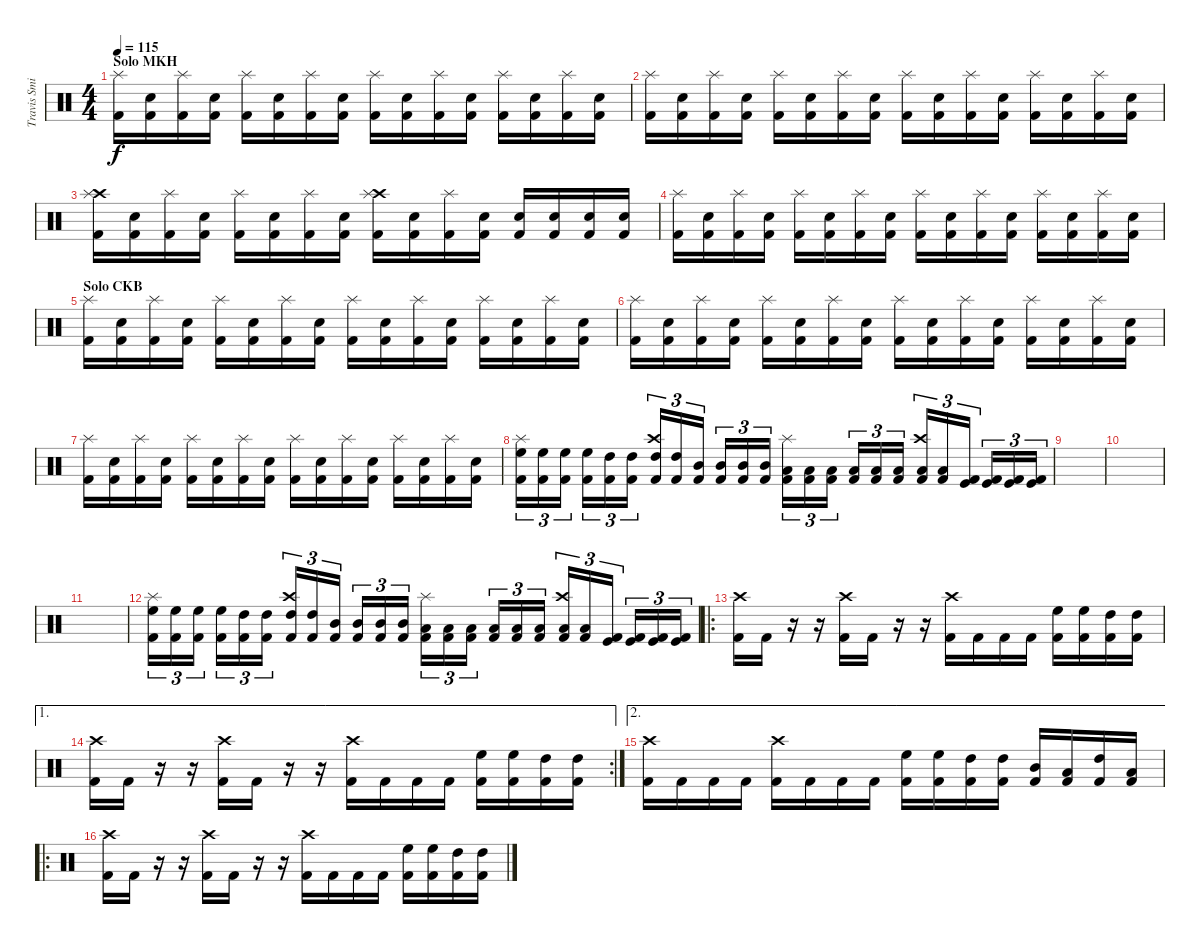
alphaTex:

\track ("Travis Smith" "Travis Smi") {instrument percussion}
\staff {score}
\articulation defaults
\ts (4 4)
\section ("" "Solo MKH")
\tempo 115
\clef neutral
\ks c
("Splash (hit)" "Kick (hit) 2").16{dy f} ("Electric Snare (hit)" "Kick (hit) 2").16 ("Splash (hit)" "Kick (hit) 2").16 ("Electric Snare (hit)" "Kick (hit) 2").16 ("Splash (hit)" "Kick (hit) 2").16 ("Electric Snare (hit)" "Kick (hit) 2").16 ("Splash (hit)" "Kick (hit) 2").16 ("Electric Snare (hit)" "Kick (hit) 2").16 ("Splash (hit)" "Kick (hit) 2").16 ("Electric Snare (hit)" "Kick (hit) 2").16 ("Splash (hit)" "Kick (hit) 2").16 ("Electric Snare (hit)" "Kick (hit) 2").16 ("Splash (hit)" "Kick (hit) 2").16 ("Electric Snare (hit)" "Kick (hit) 2").16 ("Splash (hit)" "Kick (hit) 2").16 ("Electric Snare (hit)" "Kick (hit) 2").16 |
("Splash (hit)" "Kick (hit) 2").16 ("Electric Snare (hit)" "Kick (hit) 2").16 ("Splash (hit)" "Kick (hit) 2").16 ("Electric Snare (hit)" "Kick (hit) 2").16 ("Splash (hit)" "Kick (hit) 2").16 ("Electric Snare (hit)" "Kick (hit) 2").16 ("Splash (hit)" "Kick (hit) 2").16 ("Electric Snare (hit)" "Kick (hit) 2").16 ("Splash (hit)" "Kick (hit) 2").16 ("Electric Snare (hit)" "Kick (hit) 2").16 ("Splash (hit)" "Kick (hit) 2").16 ("Electric Snare (hit)" "Kick (hit) 2").16 ("Splash (hit)" "Kick (hit) 2").16 ("Electric Snare (hit)" "Kick (hit) 2").16 ("Splash (hit)" "Kick (hit) 2").16 ("Electric Snare (hit)" "Kick (hit) 2").16 |
("Crash high (hit)" "Splash (hit)" "Kick (hit) 2").16 ("Electric Snare (hit)" "Kick (hit) 2").16 ("Splash (hit)" "Kick (hit) 2").16 ("Electric Snare (hit)" "Kick (hit) 2").16 ("Splash (hit)" "Kick (hit) 2").16 ("Electric Snare (hit)" "Kick (hit) 2").16 ("Splash (hit)" "Kick (hit) 2").16 ("Electric Snare (hit)" "Kick (hit) 2").16 ("Crash high (hit)" "Splash (hit)" "Kick (hit) 2").16 ("Electric Snare (hit)" "Kick (hit) 2").16 ("Splash (hit)" "Kick (hit) 2").16 ("Electric Snare (hit)" "Kick (hit) 2").16 ("Electric Snare (hit)" "Kick (hit) 2").16 ("Electric Snare (hit)" "Kick (hit) 2").16 ("Electric Snare (hit)" "Kick (hit) 2").16 ("Electric Snare (hit)" "Kick (hit) 2").16 |
("Splash (hit)" "Kick (hit) 2").16 ("Electric Snare (hit)" "Kick (hit) 2").16 ("Splash (hit)" "Kick (hit) 2").16 ("Electric Snare (hit)" "Kick (hit) 2").16 ("Splash (hit)" "Kick (hit) 2").16 ("Electric Snare (hit)" "Kick (hit) 2").16 ("Splash (hit)" "Kick (hit) 2").16 ("Electric Snare (hit)" "Kick (hit) 2").16 ("Splash (hit)" "Kick (hit) 2").16 ("Electric Snare (hit)" "Kick (hit) 2").16 ("Splash (hit)" "Kick (hit) 2").16 ("Electric Snare (hit)" "Kick (hit) 2").16 ("Splash (hit)" "Kick (hit) 2").16 ("Electric Snare (hit)" "Kick (hit) 2").16 ("Splash (hit)" "Kick (hit) 2").16 ("Electric Snare (hit)" "Kick (hit) 2").16 |
\section ("" "Solo CKB")
("Splash (hit)" "Kick (hit) 2").16 ("Electric Snare (hit)" "Kick (hit) 2").16 ("Splash (hit)" "Kick (hit) 2").16 ("Electric Snare (hit)" "Kick (hit) 2").16 ("Splash (hit)" "Kick (hit) 2").16 ("Electric Snare (hit)" "Kick (hit) 2").16 ("Splash (hit)" "Kick (hit) 2").16 ("Electric Snare (hit)" "Kick (hit) 2").16 ("Splash (hit)" "Kick (hit) 2").16 ("Electric Snare (hit)" "Kick (hit) 2").16 ("Splash (hit)" "Kick (hit) 2").16 ("Electric Snare (hit)" "Kick (hit) 2").16 ("Splash (hit)" "Kick (hit) 2").16 ("Electric Snare (hit)" "Kick (hit) 2").16 ("Splash (hit)" "Kick (hit) 2").16 ("Electric Snare (hit)" "Kick (hit) 2").16 |
("Splash (hit)" "Kick (hit) 2").16 ("Electric Snare (hit)" "Kick (hit) 2").16 ("Splash (hit)" "Kick (hit) 2").16 ("Electric Snare (hit)" "Kick (hit) 2").16 ("Splash (hit)" "Kick (hit) 2").16 ("Electric Snare (hit)" "Kick (hit) 2").16 ("Splash (hit)" "Kick (hit) 2").16 ("Electric Snare (hit)" "Kick (hit) 2").16 ("Splash (hit)" "Kick (hit) 2").16 ("Electric Snare (hit)" "Kick (hit) 2").16 ("Splash (hit)" "Kick (hit) 2").16 ("Electric Snare (hit)" "Kick (hit) 2").16 ("Splash (hit)" "Kick (hit) 2").16 ("Electric Snare (hit)" "Kick (hit) 2").16 ("Splash (hit)" "Kick (hit) 2").16 ("Electric Snare (hit)" "Kick (hit) 2").16 |
("Splash (hit)" "Kick (hit) 2").16 ("Electric Snare (hit)" "Kick (hit) 2").16 ("Splash (hit)" "Kick (hit) 2").16 ("Electric Snare (hit)" "Kick (hit) 2").16 ("Splash (hit)" "Kick (hit) 2").16 ("Electric Snare (hit)" "Kick (hit) 2").16 ("Splash (hit)" "Kick (hit) 2").16 ("Electric Snare (hit)" "Kick (hit) 2").16 ("Splash (hit)" "Kick (hit) 2").16 ("Electric Snare (hit)" "Kick (hit) 2").16 ("Splash (hit)" "Kick (hit) 2").16 ("Electric Snare (hit)" "Kick (hit) 2").16 ("Splash (hit)" "Kick (hit) 2").16 ("Electric Snare (hit)" "Kick (hit) 2").16 ("Splash (hit)" "Kick (hit) 2").16 ("Electric Snare (hit)" "Kick (hit) 2").16 |
("Splash (hit)" "High Floor Tom (hit)" "Kick (hit) 2").16{tu (3 2)} ("High Floor Tom (hit)" "Kick (hit) 2").16{tu (3 2)} ("High Floor Tom (hit)" "Kick (hit) 2").16{tu (3 2)} ("High Floor Tom (hit)" "Kick (hit) 2").16{tu (3 2)} ("High Tom (hit)" "Kick (hit) 2").16{tu (3 2)} ("High Tom (hit)" "Kick (hit) 2").16{tu (3 2)} ("Crash high (hit)" "High Tom (hit)" "Kick (hit) 2").16{tu (3 2)} ("High Tom (hit)" "Kick (hit) 2").16{tu (3 2)} ("Mid Tom (hit)" "Kick (hit) 2").16{tu (3 2)} ("Mid Tom (hit)" "Kick (hit) 2").16{tu (3 2)} ("Mid Tom (hit)" "Kick (hit) 2").16{tu (3 2)} ("Mid Tom (hit)" "Kick (hit) 2").16{tu (3 2)} ("Splash (hit)" "Low Tom (hit)" "Kick (hit) 2").16{tu (3 2)} ("Low Tom (hit)" "Kick (hit) 2").16{tu (3 2)} ("Low Tom (hit)" "Kick (hit) 2").16{tu (3 2)} ("Low Tom (hit)" "Kick (hit) 2").16{tu (3 2)} ("Low Floor Tom (hit)" "Kick (hit) 2").16{tu (3 2)} ("Low Floor Tom (hit)" "Kick (hit) 2").16{tu (3 2)} ("Crash high (hit)" "Low Floor Tom (hit)" "Kick (hit) 2").16{tu (3 2)} ("Low Floor Tom (hit)" "Kick (hit) 2").16{tu (3 2)} ("Kick (hit)" "Kick (hit) 2").16{tu (3 2)} ("Kick (hit)" "Kick (hit) 2").16{tu (3 2)} ("Kick (hit)" "Kick (hit) 2").16{tu (3 2)} ("Kick (hit)" "Kick (hit) 2").16{tu (3 2)} |
|
|
|
("Splash (hit)" "High Floor Tom (hit)" "Kick (hit) 2").16{tu (3 2)} ("High Floor Tom (hit)" "Kick (hit) 2").16{tu (3 2)} ("High Floor Tom (hit)" "Kick (hit) 2").16{tu (3 2)} ("High Floor Tom (hit)" "Kick (hit) 2").16{tu (3 2)} ("High Tom (hit)" "Kick (hit) 2").16{tu (3 2)} ("High Tom (hit)" "Kick (hit) 2").16{tu (3 2)} ("Crash high (hit)" "High Tom (hit)" "Kick (hit) 2").16{tu (3 2)} ("High Tom (hit)" "Kick (hit) 2").16{tu (3 2)} ("Mid Tom (hit)" "Kick (hit) 2").16{tu (3 2)} ("Mid Tom (hit)" "Kick (hit) 2").16{tu (3 2)} ("Mid Tom (hit)" "Kick (hit) 2").16{tu (3 2)} ("Mid Tom (hit)" "Kick (hit) 2").16{tu (3 2)} ("Splash (hit)" "Low Tom (hit)" "Kick (hit) 2").16{tu (3 2)} ("Low Tom (hit)" "Kick (hit) 2").16{tu (3 2)} ("Low Tom (hit)" "Kick (hit) 2").16{tu (3 2)} ("Low Tom (hit)" "Kick (hit) 2").16{tu (3 2)} ("Low Floor Tom (hit)" "Kick (hit) 2").16{tu (3 2)} ("Low Floor Tom (hit)" "Kick (hit) 2").16{tu (3 2)} ("Crash high (hit)" "Low Floor Tom (hit)" "Kick (hit) 2").16{tu (3 2)} ("Low Floor Tom (hit)" "Kick (hit) 2").16{tu (3 2)} ("Kick (hit)" "Kick (hit) 2").16{tu (3 2)} ("Kick (hit)" "Kick (hit) 2").16{tu (3 2)} ("Kick (hit)" "Kick (hit) 2").16{tu (3 2)} ("Kick (hit)" "Kick (hit) 2").16{tu (3 2)} |
\ro
("Crash high (hit)" "Kick (hit) 2").16 "Kick (hit) 2".16 r.16 r.16 ("Crash high (hit)" "Kick (hit) 2").16 "Kick (hit) 2".16 r.16 r.16 ("Crash high (hit)" "Kick (hit) 2").16 "Kick (hit) 2".16 "Kick (hit) 2".16 "Kick (hit) 2".16 ("High Floor Tom (hit)" "Kick (hit) 2").16 ("High Floor Tom (hit)" "Kick (hit) 2").16 ("High Tom (hit)" "Kick (hit) 2").16 ("High Tom (hit)" "Kick (hit) 2").16 |
\ae 1
\rc 2
("Crash high (hit)" "Kick (hit) 2").16 "Kick (hit) 2".16 r.16 r.16 ("Crash high (hit)" "Kick (hit) 2").16 "Kick (hit) 2".16 r.16 r.16 ("Crash high (hit)" "Kick (hit) 2").16 "Kick (hit) 2".16 "Kick (hit) 2".16 "Kick (hit) 2".16 ("High Floor Tom (hit)" "Kick (hit) 2").16 ("High Floor Tom (hit)" "Kick (hit) 2").16 ("High Tom (hit)" "Kick (hit) 2").16 ("High Tom (hit)" "Kick (hit) 2").16 |
\ae 2
("Crash high (hit)" "Kick (hit) 2").16 "Kick (hit) 2".16 "Kick (hit) 2".16 "Kick (hit) 2".16 ("Crash high (hit)" "Kick (hit) 2").16 "Kick (hit) 2".16 "Kick (hit) 2".16 "Kick (hit) 2".16 ("High Floor Tom (hit)" "Kick (hit) 2").16 ("High Floor Tom (hit)" "Kick (hit) 2").16 ("High Tom (hit)" "Kick (hit) 2").16 ("High Tom (hit)" "Kick (hit) 2").16 ("Mid Tom (hit)" "Kick (hit) 2").16 ("Low Tom (hit)" "Kick (hit) 2").16 ("High Tom (hit)" "Kick (hit) 2").16 ("Low Tom (hit)" "Kick (hit) 2").16 |
\ro
("Crash high (hit)" "Kick (hit) 2").16 "Kick (hit) 2".16 r.16 r.16 ("Crash high (hit)" "Kick (hit) 2").16 "Kick (hit) 2".16 r.16 r.16 ("Crash high (hit)" "Kick (hit) 2").16 "Kick (hit) 2".16 "Kick (hit) 2".16 "Kick (hit) 2".16 ("High Floor Tom (hit)" "Kick (hit) 2").16 ("High Floor Tom (hit)" "Kick (hit) 2").16 ("High Tom (hit)" "Kick (hit) 2").16 ("High Tom (hit)" "Kick (hit) 2").16
